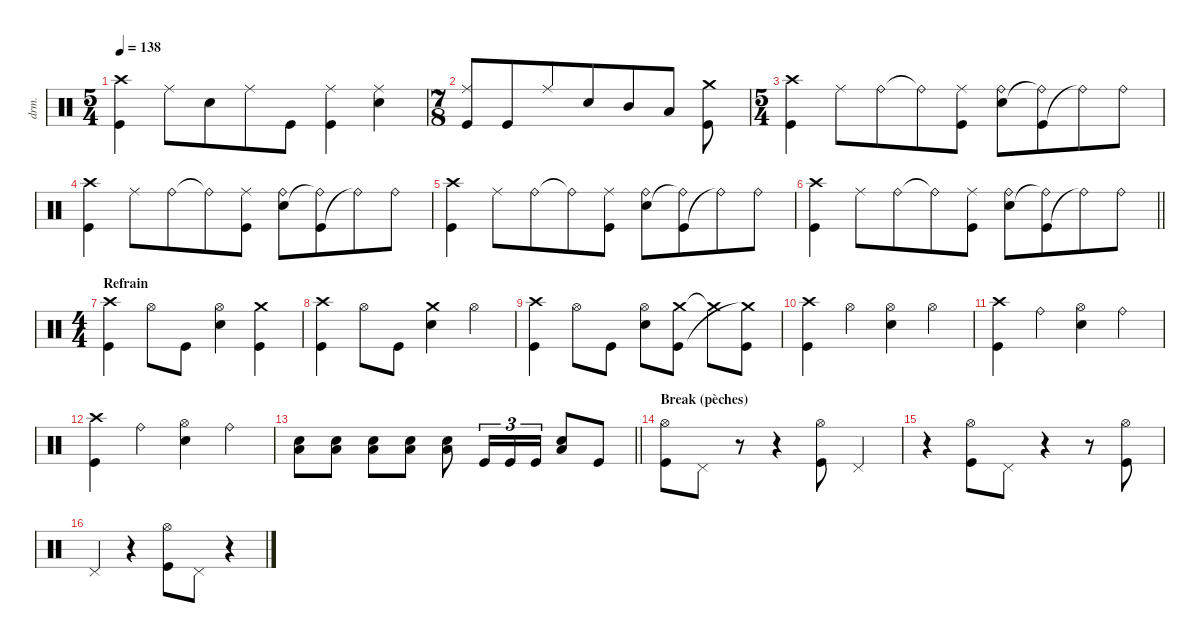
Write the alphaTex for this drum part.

\defaultSystemsLayout 4
\hideDynamics
\bracketExtendMode nobrackets
\track ("Percussions" "drm.") {instrument percussion}
\staff {score}
\articulation defaults
\ts (5 4)
\beaming (8 6 4)
\tempo 138
\clef neutral
\ks aminor
("Crash high (hit)" "Kick (hit)").4{dy f beam Down} "Ride (middle)".8{beam Down} "Snare (hit) 2".8{beam Down} "Ride (middle)".8{beam Down} "Kick (hit)".8{beam Down} ("Ride (middle)" "Kick (hit)").4{beam Down} ("Ride (middle)" "Snare (hit) 2").4{beam Down} |
\ts (7 8)
\beaming (8 6 4)
("Ride (middle)" "Kick (hit)").8{beam Up} "Kick (hit)".8{beam Up} "Ride (middle)".8{beam Up} "Snare (hit) 2".8{beam Up} "Mid Tom (hit)".8{beam Up} "Low Tom (hit)".8{beam Up} ("Kick (hit)" "Crash medium (hit)").8{beam Down} |
\ts (5 4)
\beaming (8 6 4)
("Crash high (hit)" "Kick (hit)").4{beam Down} "Ride (middle)".8{beam Down} "Ride (bell)".8{beam Down} "Ride (bell)"{t}.8{beam Down} ("Ride (middle)" "Kick (hit)").8{beam Down} ("Ride (bell)" "Snare (hit) 2").8{beam Down} ("Kick (hit)" "Ride (bell)"{t}).8{beam Down} "Ride (bell)"{t}.8{beam Down} "Ride (bell)".8{beam Down} |
("Crash high (hit)" "Kick (hit)").4{beam Down} "Ride (middle)".8{beam Down} "Ride (bell)".8{beam Down} "Ride (bell)"{t}.8{beam Down} ("Ride (middle)" "Kick (hit)").8{beam Down} ("Ride (bell)" "Snare (hit) 2").8{beam Down} ("Kick (hit)" "Ride (bell)"{t}).8{beam Down} "Ride (bell)"{t}.8{beam Down} "Ride (bell)".8{beam Down} |
("Crash high (hit)" "Kick (hit)").4{beam Down} "Ride (middle)".8{beam Down} "Ride (bell)".8{beam Down} "Ride (bell)"{t}.8{beam Down} ("Ride (middle)" "Kick (hit)").8{beam Down} ("Ride (bell)" "Snare (hit) 2").8{beam Down} ("Kick (hit)" "Ride (bell)"{t}).8{beam Down} "Ride (bell)"{t}.8{beam Down} "Ride (bell)".8{beam Down} |
\barLineRight lightlight
("Crash high (hit)" "Kick (hit)").4{beam Down} "Ride (middle)".8{beam Down} "Ride (bell)".8{beam Down} "Ride (bell)"{t}.8{beam Down} ("Ride (middle)" "Kick (hit)").8{beam Down} ("Ride (bell)" "Snare (hit) 2").8{beam Down} ("Kick (hit)" "Ride (bell)"{t}).8{beam Down} "Ride (bell)"{t}.8{beam Down} "Ride (bell)".8{beam Down} |
\ts (4 4)
\beaming (8 2 2 2 2)
\section ("" "Refrain")
("Kick (hit)" "Crash high (hit)").4{beam Down} "Hi-Hat (open)".8{beam Down} "Kick (hit)".8{beam Down} ("Hi-Hat (open)" "Snare (hit) 2").4{beam Down} ("Crash medium (hit)" "Kick (hit)").4{beam Down} |
("Kick (hit)" "Crash high (hit)").4{beam Down} "Hi-Hat (open)".8{beam Down} "Kick (hit)".8{beam Down} ("Crash medium (hit)" "Snare (hit) 2").4{beam Down} "Hi-Hat (open)".4{beam Down} |
("Kick (hit)" "Crash high (hit)").4{beam Down} "Hi-Hat (open)".8{beam Down} "Kick (hit)".8{beam Down} ("Hi-Hat (open)" "Snare (hit) 2").8{beam Down} ("Crash medium (hit)" "Kick (hit)").8{beam Down} "Crash medium (hit)"{t}.8{beam Down} ("Kick (hit)" "Crash medium (hit)"{t}).8{beam Down} |
("Kick (hit)" "Crash high (hit)").4{beam Down} "Hi-Hat (open)".4{beam Down} ("Hi-Hat (open)" "Snare (hit) 2").4{beam Down} "Hi-Hat (open)".4{beam Down} |
("Kick (hit)" "Crash high (hit)").4{beam Down} "Ride (bell)".4{beam Down} ("Hi-Hat (open)" "Snare (hit) 2").4{beam Down} "Ride (bell)".4{beam Down} |
("Kick (hit)" "Crash high (hit)").4{beam Down} "Ride (bell)".4{beam Down} ("Hi-Hat (open)" "Snare (hit) 2").4{beam Down} "Ride (bell)".4{beam Down} |
\barLineRight lightlight
("Snare (hit) 2" "Low Tom (hit)").8{beam Down} ("Snare (hit) 2" "Low Tom (hit)").8{beam Down} ("Snare (hit) 2" "Low Tom (hit)").8{beam Down} ("Snare (hit) 2" "Low Tom (hit)").8{beam Down} ("Snare (hit) 2" "Low Tom (hit)").8{beam Down} "Kick (hit)".16{tu (3 2) beam Up} "Kick (hit)".16{tu (3 2) beam Up} "Kick (hit)".16{tu (3 2) beam Up} ("Snare (hit) 2" "Low Tom (hit)").8{beam Up} "Kick (hit)".8{beam Up} |
\section ("" "Break (pèches)")
("Hi-Hat (open)" "Kick (hit)").8{beam Down} "Pedal Hi-Hat (hit)".8{beam Down} r.8{beam Down} r.4{beam Down} ("Hi-Hat (open)" "Kick (hit)").8{beam Down} "Pedal Hi-Hat (hit)".4{beam Up} |
r.4{beam Down} ("Hi-Hat (open)" "Kick (hit)").8{beam Down} "Pedal Hi-Hat (hit)".8{beam Down} r.4{beam Down} r.8{beam Down} ("Kick (hit)" "Hi-Hat (open)").8{beam Down} |
"Pedal Hi-Hat (hit)".4{beam Up} r.4{beam Up} ("Hi-Hat (open)" "Kick (hit)").8{beam Down} "Pedal Hi-Hat (hit)".8{beam Down} r.4{beam Down}
